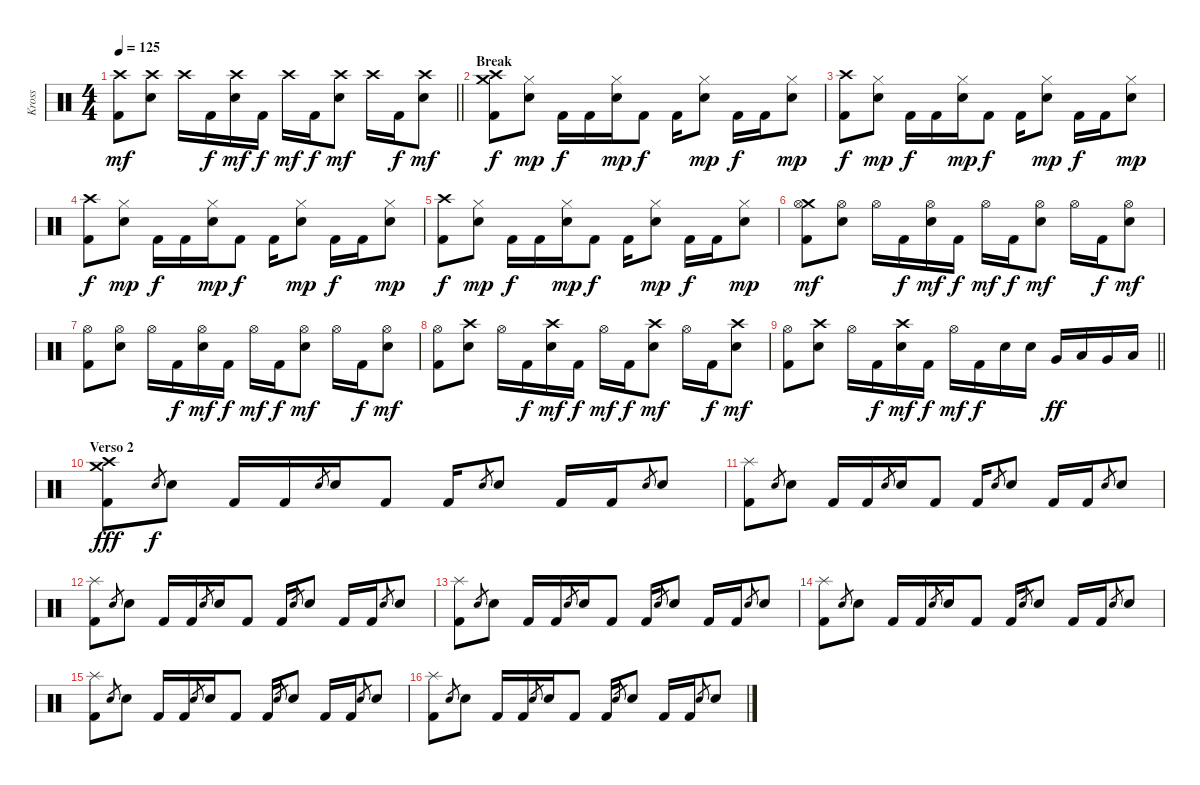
\track ("Kross" "Kross") {instrument percussion}
\staff {score}
\articulation defaults
\ts (4 4)
\tempo 125
\clef neutral
\barLineRight lightlight
\ks c
("Crash high (hit)" "Kick (hit) 2").8{dy mf} ("Crash high (hit)" "Snare (hit) 2").8 "Crash high (hit)".16 "Kick (hit) 2".16{dy f} ("Crash high (hit)" "Snare (hit) 2").16{dy mf} "Kick (hit) 2".16{dy f} "Crash high (hit)".16{dy mf} "Kick (hit) 2".16{dy f} ("Crash high (hit)" "Snare (hit) 2").8{dy mf} "Crash high (hit)".16 "Kick (hit) 2".16{dy f} ("Crash high (hit)" "Snare (hit) 2").8{dy mf} |
\section ("" "Break")
("Crash high (hit)" "Crash medium (hit)" "Kick (hit) 2").8{dy f} ("Hi-Hat (closed)" "Snare (hit) 2").8{dy mp} "Kick (hit) 2".16{dy f} "Kick (hit) 2".16 ("Hi-Hat (closed)" "Snare (hit) 2").16{dy mp} "Kick (hit) 2".8{dy f} "Kick (hit) 2".16 ("Hi-Hat (closed)" "Snare (hit) 2").8{dy mp} "Kick (hit) 2".16{dy f} "Kick (hit) 2".16 ("Hi-Hat (closed)" "Snare (hit) 2").8{dy mp} |
("Crash high (hit)" "Kick (hit) 2").8{dy f} ("Hi-Hat (closed)" "Snare (hit) 2").8{dy mp} "Kick (hit) 2".16{dy f} "Kick (hit) 2".16 ("Hi-Hat (closed)" "Snare (hit) 2").16{dy mp} "Kick (hit) 2".8{dy f} "Kick (hit) 2".16 ("Hi-Hat (closed)" "Snare (hit) 2").8{dy mp} "Kick (hit) 2".16{dy f} "Kick (hit) 2".16 ("Hi-Hat (closed)" "Snare (hit) 2").8{dy mp} |
("Crash high (hit)" "Kick (hit) 2").8{dy f} ("Hi-Hat (closed)" "Snare (hit) 2").8{dy mp} "Kick (hit) 2".16{dy f} "Kick (hit) 2".16 ("Hi-Hat (closed)" "Snare (hit) 2").16{dy mp} "Kick (hit) 2".8{dy f} "Kick (hit) 2".16 ("Hi-Hat (closed)" "Snare (hit) 2").8{dy mp} "Kick (hit) 2".16{dy f} "Kick (hit) 2".16 ("Hi-Hat (closed)" "Snare (hit) 2").8{dy mp} |
("Crash high (hit)" "Kick (hit) 2").8{dy f} ("Hi-Hat (closed)" "Snare (hit) 2").8{dy mp} "Kick (hit) 2".16{dy f} "Kick (hit) 2".16 ("Hi-Hat (closed)" "Snare (hit) 2").16{dy mp} "Kick (hit) 2".8{dy f} "Kick (hit) 2".16 ("Hi-Hat (closed)" "Snare (hit) 2").8{dy mp} "Kick (hit) 2".16{dy f} "Kick (hit) 2".16 ("Hi-Hat (closed)" "Snare (hit) 2").8{dy mp} |
("Crash medium (hit)" "Hi-Hat (open)" "Kick (hit) 2").8{dy mf} ("Hi-Hat (open)" "Snare (hit) 2").8 "Hi-Hat (open)".16 "Kick (hit) 2".16{dy f} ("Hi-Hat (open)" "Snare (hit) 2").16{dy mf} "Kick (hit) 2".16{dy f} "Hi-Hat (open)".16{dy mf} "Kick (hit) 2".16{dy f} ("Hi-Hat (open)" "Snare (hit) 2").8{dy mf} "Hi-Hat (open)".16 "Kick (hit) 2".16{dy f} ("Hi-Hat (open)" "Snare (hit) 2").8{dy mf} |
("Hi-Hat (open)" "Kick (hit) 2").8 ("Hi-Hat (open)" "Snare (hit) 2").8 "Hi-Hat (open)".16 "Kick (hit) 2".16{dy f} ("Hi-Hat (open)" "Snare (hit) 2").16{dy mf} "Kick (hit) 2".16{dy f} "Hi-Hat (open)".16{dy mf} "Kick (hit) 2".16{dy f} ("Hi-Hat (open)" "Snare (hit) 2").8{dy mf} "Hi-Hat (open)".16 "Kick (hit) 2".16{dy f} ("Hi-Hat (open)" "Snare (hit) 2").8{dy mf} |
("Hi-Hat (open)" "Kick (hit) 2").8 ("Crash high (hit)" "Snare (hit) 2").8 "Hi-Hat (open)".16 "Kick (hit) 2".16{dy f} ("Crash high (hit)" "Snare (hit) 2").16{dy mf} "Kick (hit) 2".16{dy f} "Hi-Hat (open)".16{dy mf} "Kick (hit) 2".16{dy f} ("Crash high (hit)" "Snare (hit) 2").8{dy mf} "Hi-Hat (open)".16 "Kick (hit) 2".16{dy f} ("Crash high (hit)" "Snare (hit) 2").8{dy mf} |
\barLineRight lightlight
("Hi-Hat (open)" "Kick (hit) 2").8 ("Crash high (hit)" "Snare (hit) 2").8 "Hi-Hat (open)".16 "Kick (hit) 2".16{dy f} ("Crash high (hit)" "Snare (hit) 2").16{dy mf} "Kick (hit) 2".16{dy f} "Hi-Hat (open)".16{dy mf} "Kick (hit) 2".16{dy f} "Snare (hit) 2".16 "Snare (hit) 2".16 "Very Low Tom (hit)".16{dy ff} "Low Tom (hit)".16 "Very Low Tom (hit)".16 "Low Tom (hit)".16 |
\section ("" "Verso 2")
("Crash high (hit)" "Crash medium (hit)" "Kick (hit) 2").8{dy fff} "Snare (hit) 2".8{gr dy f} "Snare (hit) 2".8 "Kick (hit) 2".16 "Kick (hit) 2".16 "Snare (hit) 2".8{gr} "Snare (hit) 2".16 "Kick (hit) 2".8 "Kick (hit) 2".16 "Snare (hit) 2".8{gr} "Snare (hit) 2".8 "Kick (hit) 2".16 "Kick (hit) 2".16 "Snare (hit) 2".8{gr} "Snare (hit) 2".8 |
("Splash (hit)" "Kick (hit) 2").8 "Snare (hit) 2".8{gr} "Snare (hit) 2".8 "Kick (hit) 2".16 "Kick (hit) 2".16 "Snare (hit) 2".8{gr} "Snare (hit) 2".16 "Kick (hit) 2".8 "Kick (hit) 2".16 "Snare (hit) 2".8{gr} "Snare (hit) 2".8 "Kick (hit) 2".16 "Kick (hit) 2".16 "Snare (hit) 2".8{gr} "Snare (hit) 2".8 |
("Splash (hit)" "Kick (hit) 2").8 "Snare (hit) 2".8{gr} "Snare (hit) 2".8 "Kick (hit) 2".16 "Kick (hit) 2".16 "Snare (hit) 2".8{gr} "Snare (hit) 2".16 "Kick (hit) 2".8 "Kick (hit) 2".16 "Snare (hit) 2".8{gr} "Snare (hit) 2".8 "Kick (hit) 2".16 "Kick (hit) 2".16 "Snare (hit) 2".8{gr} "Snare (hit) 2".8 |
("Splash (hit)" "Kick (hit) 2").8 "Snare (hit) 2".8{gr} "Snare (hit) 2".8 "Kick (hit) 2".16 "Kick (hit) 2".16 "Snare (hit) 2".8{gr} "Snare (hit) 2".16 "Kick (hit) 2".8 "Kick (hit) 2".16 "Snare (hit) 2".8{gr} "Snare (hit) 2".8 "Kick (hit) 2".16 "Kick (hit) 2".16 "Snare (hit) 2".8{gr} "Snare (hit) 2".8 |
("Splash (hit)" "Kick (hit) 2").8 "Snare (hit) 2".8{gr} "Snare (hit) 2".8 "Kick (hit) 2".16 "Kick (hit) 2".16 "Snare (hit) 2".8{gr} "Snare (hit) 2".16 "Kick (hit) 2".8 "Kick (hit) 2".16 "Snare (hit) 2".8{gr} "Snare (hit) 2".8 "Kick (hit) 2".16 "Kick (hit) 2".16 "Snare (hit) 2".8{gr} "Snare (hit) 2".8 |
("Splash (hit)" "Kick (hit) 2").8 "Snare (hit) 2".8{gr} "Snare (hit) 2".8 "Kick (hit) 2".16 "Kick (hit) 2".16 "Snare (hit) 2".8{gr} "Snare (hit) 2".16 "Kick (hit) 2".8 "Kick (hit) 2".16 "Snare (hit) 2".8{gr} "Snare (hit) 2".8 "Kick (hit) 2".16 "Kick (hit) 2".16 "Snare (hit) 2".8{gr} "Snare (hit) 2".8 |
("Splash (hit)" "Kick (hit) 2").8 "Snare (hit) 2".8{gr} "Snare (hit) 2".8 "Kick (hit) 2".16 "Kick (hit) 2".16 "Snare (hit) 2".8{gr} "Snare (hit) 2".16 "Kick (hit) 2".8 "Kick (hit) 2".16 "Snare (hit) 2".8{gr} "Snare (hit) 2".8 "Kick (hit) 2".16 "Kick (hit) 2".16 "Snare (hit) 2".8{gr} "Snare (hit) 2".8
